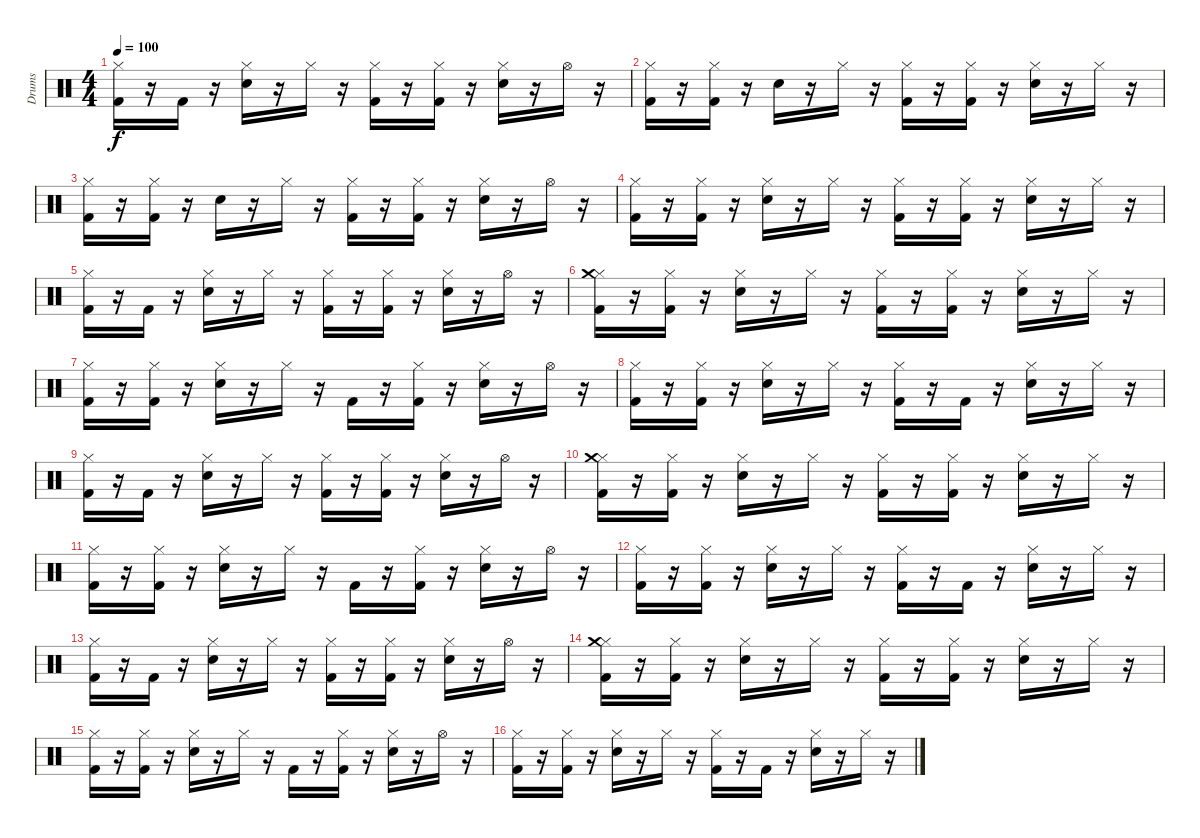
\bracketExtendMode groupsimilarinstruments
\otherSystemsTrackNameOrientation horizontal
\track ("Drumkit" "Drums") {instrument percussion}
\staff {score}
\articulation defaults
\ts (4 4)
\tempo 100
\clef neutral
\ks c
("Kick (hit) 2" "Hi-Hat (closed)").16{dy f beam Down} r.16{beam Down} "Kick (hit) 2".16{beam Down} r.16{beam Down} ("Snare (hit) 2" "Hi-Hat (closed)").16{beam Down} r.16{beam Down} "Hi-Hat (closed)".16{beam Down} r.16{beam Down} ("Kick (hit) 2" "Hi-Hat (closed)").16{beam Down} r.16{beam Down} ("Kick (hit) 2" "Hi-Hat (closed)").16{beam Down} r.16{beam Down} ("Snare (hit) 2" "Hi-Hat (closed)").16{beam Down} r.16{beam Down} "Hi-Hat (open)".16{beam Down} r.16{beam Down} |
("Kick (hit) 2" "Hi-Hat (closed)").16{beam Down} r.16{beam Down} ("Kick (hit) 2" "Hi-Hat (closed)").16{beam Down} r.16{beam Down} "Snare (hit) 2".16{beam Down} r.16{beam Down} "Hi-Hat (closed)".16{beam Down} r.16{beam Down} ("Kick (hit) 2" "Hi-Hat (closed)").16{beam Down} r.16{beam Down} ("Kick (hit) 2" "Hi-Hat (closed)").16{beam Down} r.16{beam Down} ("Snare (hit) 2" "Hi-Hat (closed)").16{beam Down} r.16{beam Down} "Hi-Hat (closed)".16{beam Down} r.16{beam Down} |
("Kick (hit) 2" "Hi-Hat (closed)").16{beam Down} r.16{beam Down} ("Kick (hit) 2" "Hi-Hat (closed)").16{beam Down} r.16{beam Down} "Snare (hit) 2".16{beam Down} r.16{beam Down} "Hi-Hat (closed)".16{beam Down} r.16{beam Down} ("Kick (hit) 2" "Hi-Hat (closed)").16{beam Down} r.16{beam Down} ("Kick (hit) 2" "Hi-Hat (closed)").16{beam Down} r.16{beam Down} ("Snare (hit) 2" "Hi-Hat (closed)").16{beam Down} r.16{beam Down} "Hi-Hat (open)".16{beam Down} r.16{beam Down} |
("Kick (hit) 2" "Hi-Hat (closed)").16{beam Down} r.16{beam Down} ("Kick (hit) 2" "Hi-Hat (closed)").16{beam Down} r.16{beam Down} ("Snare (hit) 2" "Hi-Hat (closed)").16{beam Down} r.16{beam Down} "Hi-Hat (closed)".16{beam Down} r.16{beam Down} ("Kick (hit) 2" "Hi-Hat (closed)").16{beam Down} r.16{beam Down} ("Kick (hit) 2" "Hi-Hat (closed)").16{beam Down} r.16{beam Down} ("Snare (hit) 2" "Hi-Hat (closed)").16{beam Down} r.16{beam Down} "Hi-Hat (closed)".16{beam Down} r.16{beam Down} |
("Kick (hit) 2" "Hi-Hat (closed)").16{beam Down} r.16{beam Down} "Kick (hit) 2".16{beam Down} r.16{beam Down} ("Snare (hit) 2" "Hi-Hat (closed)").16{beam Down} r.16{beam Down} "Hi-Hat (closed)".16{beam Down} r.16{beam Down} ("Kick (hit) 2" "Hi-Hat (closed)").16{beam Down} r.16{beam Down} ("Kick (hit) 2" "Hi-Hat (closed)").16{beam Down} r.16{beam Down} ("Snare (hit) 2" "Hi-Hat (closed)").16{beam Down} r.16{beam Down} "Hi-Hat (open)".16{beam Down} r.16{beam Down} |
("Kick (hit) 2" "Hi-Hat (closed)" "Crash medium (hit)").16{beam Down} r.16{beam Down} ("Kick (hit) 2" "Hi-Hat (closed)").16{beam Down} r.16{beam Down} ("Snare (hit) 2" "Hi-Hat (closed)").16{beam Down} r.16{beam Down} "Hi-Hat (closed)".16{beam Down} r.16{beam Down} ("Kick (hit) 2" "Hi-Hat (closed)").16{beam Down} r.16{beam Down} ("Kick (hit) 2" "Hi-Hat (closed)").16{beam Down} r.16{beam Down} ("Snare (hit) 2" "Hi-Hat (closed)").16{beam Down} r.16{beam Down} "Hi-Hat (closed)".16{beam Down} r.16{beam Down} |
("Kick (hit) 2" "Hi-Hat (closed)").16{beam Down} r.16{beam Down} ("Kick (hit) 2" "Hi-Hat (closed)").16{beam Down} r.16{beam Down} ("Snare (hit) 2" "Hi-Hat (closed)").16{beam Down} r.16{beam Down} "Hi-Hat (closed)".16{beam Down} r.16{beam Down} "Kick (hit) 2".16{beam Down} r.16{beam Down} ("Kick (hit) 2" "Hi-Hat (closed)").16{beam Down} r.16{beam Down} ("Snare (hit) 2" "Hi-Hat (closed)").16{beam Down} r.16{beam Down} "Hi-Hat (open)".16{beam Down} r.16{beam Down} |
("Kick (hit) 2" "Hi-Hat (closed)").16{beam Down} r.16{beam Down} ("Kick (hit) 2" "Hi-Hat (closed)").16{beam Down} r.16{beam Down} ("Snare (hit) 2" "Hi-Hat (closed)").16{beam Down} r.16{beam Down} "Hi-Hat (closed)".16{beam Down} r.16{beam Down} ("Kick (hit) 2" "Hi-Hat (closed)").16{beam Down} r.16{beam Down} "Kick (hit) 2".16{beam Down} r.16{beam Down} ("Snare (hit) 2" "Hi-Hat (closed)").16{beam Down} r.16{beam Down} "Hi-Hat (closed)".16{beam Down} r.16{beam Down} |
("Kick (hit) 2" "Hi-Hat (closed)").16{beam Down} r.16{beam Down} "Kick (hit) 2".16{beam Down} r.16{beam Down} ("Snare (hit) 2" "Hi-Hat (closed)").16{beam Down} r.16{beam Down} "Hi-Hat (closed)".16{beam Down} r.16{beam Down} ("Kick (hit) 2" "Hi-Hat (closed)").16{beam Down} r.16{beam Down} ("Kick (hit) 2" "Hi-Hat (closed)").16{beam Down} r.16{beam Down} ("Snare (hit) 2" "Hi-Hat (closed)").16{beam Down} r.16{beam Down} "Hi-Hat (open)".16{beam Down} r.16{beam Down} |
("Kick (hit) 2" "Hi-Hat (closed)" "Crash medium (hit)").16{beam Down} r.16{beam Down} ("Kick (hit) 2" "Hi-Hat (closed)").16{beam Down} r.16{beam Down} ("Snare (hit) 2" "Hi-Hat (closed)").16{beam Down} r.16{beam Down} "Hi-Hat (closed)".16{beam Down} r.16{beam Down} ("Kick (hit) 2" "Hi-Hat (closed)").16{beam Down} r.16{beam Down} ("Kick (hit) 2" "Hi-Hat (closed)").16{beam Down} r.16{beam Down} ("Snare (hit) 2" "Hi-Hat (closed)").16{beam Down} r.16{beam Down} "Hi-Hat (closed)".16{beam Down} r.16{beam Down} |
("Kick (hit) 2" "Hi-Hat (closed)").16{beam Down} r.16{beam Down} ("Kick (hit) 2" "Hi-Hat (closed)").16{beam Down} r.16{beam Down} ("Snare (hit) 2" "Hi-Hat (closed)").16{beam Down} r.16{beam Down} "Hi-Hat (closed)".16{beam Down} r.16{beam Down} "Kick (hit) 2".16{beam Down} r.16{beam Down} ("Kick (hit) 2" "Hi-Hat (closed)").16{beam Down} r.16{beam Down} ("Snare (hit) 2" "Hi-Hat (closed)").16{beam Down} r.16{beam Down} "Hi-Hat (open)".16{beam Down} r.16{beam Down} |
("Kick (hit) 2" "Hi-Hat (closed)").16{beam Down} r.16{beam Down} ("Kick (hit) 2" "Hi-Hat (closed)").16{beam Down} r.16{beam Down} ("Snare (hit) 2" "Hi-Hat (closed)").16{beam Down} r.16{beam Down} "Hi-Hat (closed)".16{beam Down} r.16{beam Down} ("Kick (hit) 2" "Hi-Hat (closed)").16{beam Down} r.16{beam Down} "Kick (hit) 2".16{beam Down} r.16{beam Down} ("Snare (hit) 2" "Hi-Hat (closed)").16{beam Down} r.16{beam Down} "Hi-Hat (closed)".16{beam Down} r.16{beam Down} |
("Kick (hit) 2" "Hi-Hat (closed)").16{beam Down} r.16{beam Down} "Kick (hit) 2".16{beam Down} r.16{beam Down} ("Snare (hit) 2" "Hi-Hat (closed)").16{beam Down} r.16{beam Down} "Hi-Hat (closed)".16{beam Down} r.16{beam Down} ("Kick (hit) 2" "Hi-Hat (closed)").16{beam Down} r.16{beam Down} ("Kick (hit) 2" "Hi-Hat (closed)").16{beam Down} r.16{beam Down} ("Snare (hit) 2" "Hi-Hat (closed)").16{beam Down} r.16{beam Down} "Hi-Hat (open)".16{beam Down} r.16{beam Down} |
("Kick (hit) 2" "Hi-Hat (closed)" "Crash medium (hit)").16{beam Down} r.16{beam Down} ("Kick (hit) 2" "Hi-Hat (closed)").16{beam Down} r.16{beam Down} ("Snare (hit) 2" "Hi-Hat (closed)").16{beam Down} r.16{beam Down} "Hi-Hat (closed)".16{beam Down} r.16{beam Down} ("Kick (hit) 2" "Hi-Hat (closed)").16{beam Down} r.16{beam Down} ("Kick (hit) 2" "Hi-Hat (closed)").16{beam Down} r.16{beam Down} ("Snare (hit) 2" "Hi-Hat (closed)").16{beam Down} r.16{beam Down} "Hi-Hat (closed)".16{beam Down} r.16{beam Down} |
("Kick (hit) 2" "Hi-Hat (closed)").16{beam Down} r.16{beam Down} ("Kick (hit) 2" "Hi-Hat (closed)").16{beam Down} r.16{beam Down} ("Snare (hit) 2" "Hi-Hat (closed)").16{beam Down} r.16{beam Down} "Hi-Hat (closed)".16{beam Down} r.16{beam Down} "Kick (hit) 2".16{beam Down} r.16{beam Down} ("Kick (hit) 2" "Hi-Hat (closed)").16{beam Down} r.16{beam Down} ("Snare (hit) 2" "Hi-Hat (closed)").16{beam Down} r.16{beam Down} "Hi-Hat (open)".16{beam Down} r.16{beam Down} |
("Kick (hit) 2" "Hi-Hat (closed)").16{beam Down} r.16{beam Down} ("Kick (hit) 2" "Hi-Hat (closed)").16{beam Down} r.16{beam Down} ("Snare (hit) 2" "Hi-Hat (closed)").16{beam Down} r.16{beam Down} "Hi-Hat (closed)".16{beam Down} r.16{beam Down} ("Kick (hit) 2" "Hi-Hat (closed)").16{beam Down} r.16{beam Down} "Kick (hit) 2".16{beam Down} r.16{beam Down} ("Snare (hit) 2" "Hi-Hat (closed)").16{beam Down} r.16{beam Down} "Hi-Hat (closed)".16{beam Down} r.16{beam Down}
